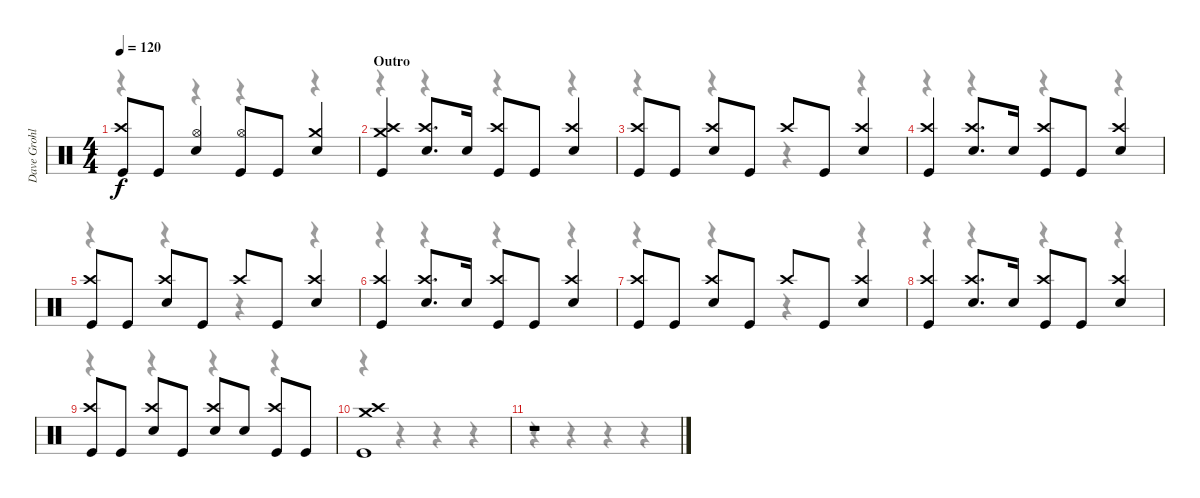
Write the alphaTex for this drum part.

\track ("Dave Grohl" "Dave Grohl") {instrument percussion}
\staff {score}
\articulation defaults
\voice
\ts (4 4)
\tempo 120
\clef neutral
\ks c
("Crash high (hit)" "Kick (hit)").8{dy f} "Kick (hit)".8 ("Hi-Hat (open)" "Snare (hit) 2").4 ("Hi-Hat (open)" "Kick (hit)").8 "Kick (hit)".8 ("Crash medium (hit)" "Snare (hit) 2").4 |
\section ("" "Outro")
("Crash medium (hit)" "Crash high (hit)" "Kick (hit)").4 ("Crash high (hit)" "Snare (hit) 2").8{d} "Snare (hit) 2".16 ("Crash high (hit)" "Kick (hit)").8 "Kick (hit)".8 ("Crash high (hit)" "Snare (hit) 2").4 |
("Crash high (hit)" "Kick (hit)").8 "Kick (hit)".8 ("Crash high (hit)" "Snare (hit) 2").8 "Kick (hit)".8 "Crash high (hit)".8 "Kick (hit)".8 ("Crash high (hit)" "Snare (hit) 2").4 |
("Crash high (hit)" "Kick (hit)").4 ("Crash high (hit)" "Snare (hit) 2").8{d} "Snare (hit) 2".16 ("Crash high (hit)" "Kick (hit)").8 "Kick (hit)".8 ("Crash high (hit)" "Snare (hit) 2").4 |
("Crash high (hit)" "Kick (hit)").8 "Kick (hit)".8 ("Crash high (hit)" "Snare (hit) 2").8 "Kick (hit)".8 "Crash high (hit)".8 "Kick (hit)".8 ("Crash high (hit)" "Snare (hit) 2").4 |
("Crash high (hit)" "Kick (hit)").4 ("Crash high (hit)" "Snare (hit) 2").8{d} "Snare (hit) 2".16 ("Crash high (hit)" "Kick (hit)").8 "Kick (hit)".8 ("Crash high (hit)" "Snare (hit) 2").4 |
("Crash high (hit)" "Kick (hit)").8 "Kick (hit)".8 ("Crash high (hit)" "Snare (hit) 2").8 "Kick (hit)".8 "Crash high (hit)".8 "Kick (hit)".8 ("Crash high (hit)" "Snare (hit) 2").4 |
("Crash high (hit)" "Kick (hit)").4 ("Crash high (hit)" "Snare (hit) 2").8{d} "Snare (hit) 2".16 ("Crash high (hit)" "Kick (hit)").8 "Kick (hit)".8 ("Crash high (hit)" "Snare (hit) 2").4 |
("Crash high (hit)" "Kick (hit)").8 "Kick (hit)".8 ("Crash high (hit)" "Snare (hit) 2").8 "Kick (hit)".8 ("Crash high (hit)" "Snare (hit) 2").8 "Snare (hit) 2".8 ("Crash high (hit)" "Kick (hit)").8 "Kick (hit)".8 |
("Crash medium (hit)" "Crash high (hit)" "Kick (hit)").1 |
r.1
\voice
\clef neutral
\ottava regular
\simile none
\ks c
r.4{dy f} r.4 r.4 r.4 |
r.4 r.4 r.4 r.4 |
r.4 r.4 r.4 r.4 |
r.4 r.4 r.4 r.4 |
r.4 r.4 r.4 r.4 |
r.4 r.4 r.4 r.4 |
r.4 r.4 r.4 r.4 |
r.4 r.4 r.4 r.4 |
r.4 r.4 r.4 r.4 |
r.4 r.4 r.4 r.4 |
r.4 r.4 r.4 r.4
